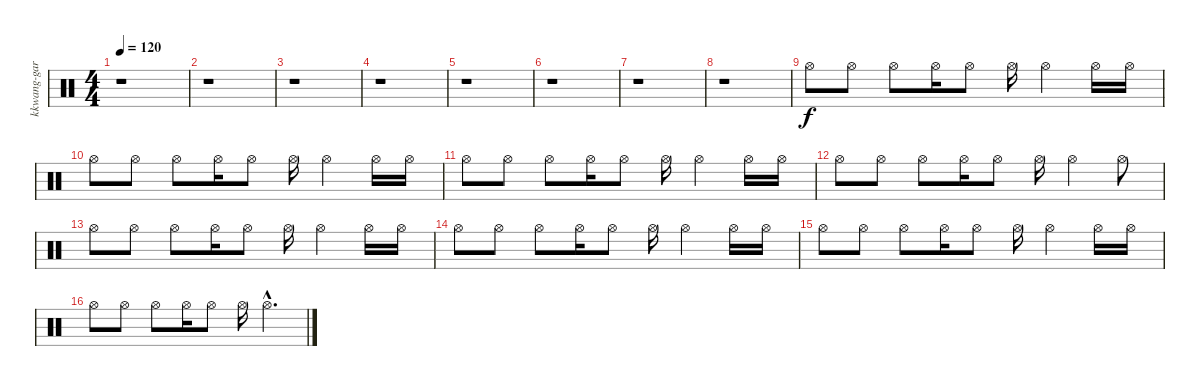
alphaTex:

\track ("kkwang-gari" "kkwang-gar") {instrument percussion}
\staff {score}
\articulation defaults
\ts (4 4)
\tempo 120
\clef neutral
\ks c
r.1{dy f} |
r.1 |
r.1 |
r.1 |
r.1 |
r.1 |
r.1 |
r.1 |
"Hi-Hat (open)".8 "Hi-Hat (open)".8 "Hi-Hat (open)".8 "Hi-Hat (open)".16 "Hi-Hat (open)".8 "Hi-Hat (open)".16 "Hi-Hat (open)".4 "Hi-Hat (open)".16 "Hi-Hat (open)".16 |
"Hi-Hat (open)".8 "Hi-Hat (open)".8 "Hi-Hat (open)".8 "Hi-Hat (open)".16 "Hi-Hat (open)".8 "Hi-Hat (open)".16 "Hi-Hat (open)".4 "Hi-Hat (open)".16 "Hi-Hat (open)".16 |
"Hi-Hat (open)".8 "Hi-Hat (open)".8 "Hi-Hat (open)".8 "Hi-Hat (open)".16 "Hi-Hat (open)".8 "Hi-Hat (open)".16 "Hi-Hat (open)".4 "Hi-Hat (open)".16 "Hi-Hat (open)".16 |
"Hi-Hat (open)".8 "Hi-Hat (open)".8 "Hi-Hat (open)".8 "Hi-Hat (open)".16 "Hi-Hat (open)".8 "Hi-Hat (open)".16 "Hi-Hat (open)".4 "Hi-Hat (open)".8 |
"Hi-Hat (open)".8 "Hi-Hat (open)".8 "Hi-Hat (open)".8 "Hi-Hat (open)".16 "Hi-Hat (open)".8 "Hi-Hat (open)".16 "Hi-Hat (open)".4 "Hi-Hat (open)".16 "Hi-Hat (open)".16 |
"Hi-Hat (open)".8 "Hi-Hat (open)".8 "Hi-Hat (open)".8 "Hi-Hat (open)".16 "Hi-Hat (open)".8 "Hi-Hat (open)".16 "Hi-Hat (open)".4 "Hi-Hat (open)".16 "Hi-Hat (open)".16 |
"Hi-Hat (open)".8 "Hi-Hat (open)".8 "Hi-Hat (open)".8 "Hi-Hat (open)".16 "Hi-Hat (open)".8 "Hi-Hat (open)".16 "Hi-Hat (open)".4 "Hi-Hat (open)".16 "Hi-Hat (open)".16 |
"Hi-Hat (open)".8 "Hi-Hat (open)".8 "Hi-Hat (open)".8 "Hi-Hat (open)".16 "Hi-Hat (open)".8 "Hi-Hat (open)".16 "Hi-Hat (open)"{hac}.4{d}
